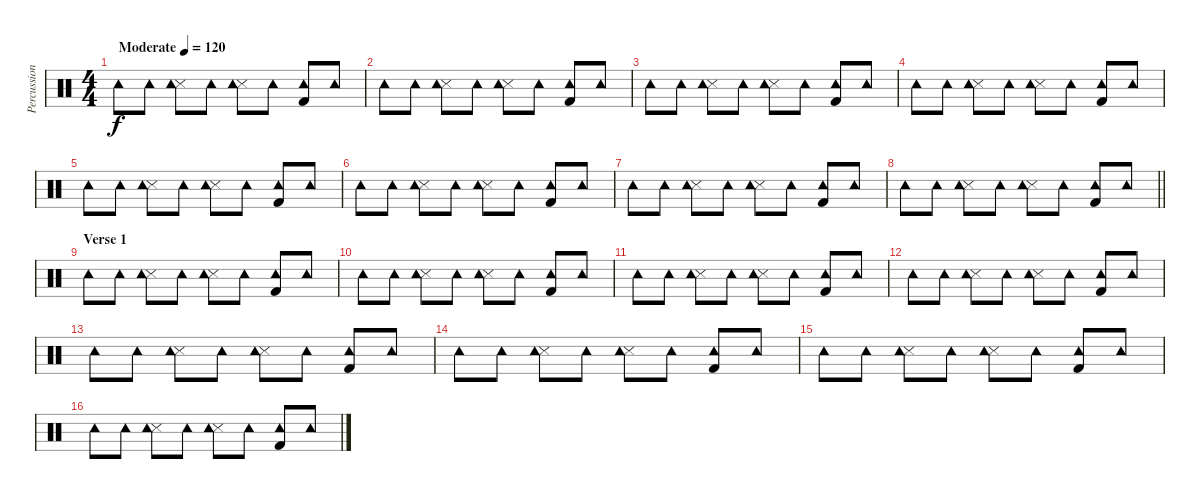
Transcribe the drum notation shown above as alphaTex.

\track ("Percussion" "Percussion") {instrument percussion}
\staff {score}
\articulation defaults
\ts (4 4)
\tempo (120 "Moderate")
\clef neutral
\ks c "Tambourine (hit)".8{dy f} "Tambourine (hit)".8
("Snare (side stick) 3" "Tambourine (hit)").8 "Tambourine (hit)".8 ("Snare (side stick) 3" "Tambourine (hit)").8 "Tambourine (hit)".8 ("Kick (hit) 2" "Tambourine (hit)").8 "Tambourine (hit)".8 |
"Tambourine (hit)".8 "Tambourine (hit)".8 ("Snare (side stick) 3" "Tambourine (hit)").8 "Tambourine (hit)".8 ("Snare (side stick) 3" "Tambourine (hit)").8 "Tambourine (hit)".8 ("Kick (hit) 2" "Tambourine (hit)").8 "Tambourine (hit)".8 |
"Tambourine (hit)".8 "Tambourine (hit)".8 ("Snare (side stick) 3" "Tambourine (hit)").8 "Tambourine (hit)".8 ("Snare (side stick) 3" "Tambourine (hit)").8 "Tambourine (hit)".8 ("Kick (hit) 2" "Tambourine (hit)").8 "Tambourine (hit)".8 |
"Tambourine (hit)".8 "Tambourine (hit)".8 ("Snare (side stick) 3" "Tambourine (hit)").8 "Tambourine (hit)".8 ("Snare (side stick) 3" "Tambourine (hit)").8 "Tambourine (hit)".8 ("Kick (hit) 2" "Tambourine (hit)").8 "Tambourine (hit)".8 |
"Tambourine (hit)".8 "Tambourine (hit)".8 ("Snare (side stick) 3" "Tambourine (hit)").8 "Tambourine (hit)".8 ("Snare (side stick) 3" "Tambourine (hit)").8 "Tambourine (hit)".8 ("Kick (hit) 2" "Tambourine (hit)").8 "Tambourine (hit)".8 |
"Tambourine (hit)".8 "Tambourine (hit)".8 ("Snare (side stick) 3" "Tambourine (hit)").8 "Tambourine (hit)".8 ("Snare (side stick) 3" "Tambourine (hit)").8 "Tambourine (hit)".8 ("Kick (hit) 2" "Tambourine (hit)").8 "Tambourine (hit)".8 |
"Tambourine (hit)".8 "Tambourine (hit)".8 ("Snare (side stick) 3" "Tambourine (hit)").8 "Tambourine (hit)".8 ("Snare (side stick) 3" "Tambourine (hit)").8 "Tambourine (hit)".8 ("Kick (hit) 2" "Tambourine (hit)").8 "Tambourine (hit)".8 |
\barLineRight lightlight "Tambourine (hit)".8 "Tambourine (hit)".8
("Snare (side stick) 3" "Tambourine (hit)").8 "Tambourine (hit)".8 ("Snare (side stick) 3" "Tambourine (hit)").8 "Tambourine (hit)".8 ("Kick (hit) 2" "Tambourine (hit)").8 "Tambourine (hit)".8 |
\section ("" "Verse 1")
"Tambourine (hit)".8 "Tambourine (hit)".8 ("Snare (side stick) 3" "Tambourine (hit)").8 "Tambourine (hit)".8 ("Snare (side stick) 3" "Tambourine (hit)").8 "Tambourine (hit)".8 ("Kick (hit) 2" "Tambourine (hit)").8 "Tambourine (hit)".8 |
"Tambourine (hit)".8 "Tambourine (hit)".8 ("Snare (side stick) 3" "Tambourine (hit)").8 "Tambourine (hit)".8 ("Snare (side stick) 3" "Tambourine (hit)").8 "Tambourine (hit)".8 ("Kick (hit) 2" "Tambourine (hit)").8 "Tambourine (hit)".8 |
"Tambourine (hit)".8 "Tambourine (hit)".8 ("Snare (side stick) 3" "Tambourine (hit)").8 "Tambourine (hit)".8 ("Snare (side stick) 3" "Tambourine (hit)").8 "Tambourine (hit)".8 ("Kick (hit) 2" "Tambourine (hit)").8 "Tambourine (hit)".8 |
"Tambourine (hit)".8 "Tambourine (hit)".8 ("Snare (side stick) 3" "Tambourine (hit)").8 "Tambourine (hit)".8 ("Snare (side stick) 3" "Tambourine (hit)").8 "Tambourine (hit)".8 ("Kick (hit) 2" "Tambourine (hit)").8 "Tambourine (hit)".8 |
"Tambourine (hit)".8 "Tambourine (hit)".8 ("Snare (side stick) 3" "Tambourine (hit)").8 "Tambourine (hit)".8 ("Snare (side stick) 3" "Tambourine (hit)").8 "Tambourine (hit)".8 ("Kick (hit) 2" "Tambourine (hit)").8 "Tambourine (hit)".8 |
"Tambourine (hit)".8 "Tambourine (hit)".8 ("Snare (side stick) 3" "Tambourine (hit)").8 "Tambourine (hit)".8 ("Snare (side stick) 3" "Tambourine (hit)").8 "Tambourine (hit)".8 ("Kick (hit) 2" "Tambourine (hit)").8 "Tambourine (hit)".8 |
"Tambourine (hit)".8 "Tambourine (hit)".8 ("Snare (side stick) 3" "Tambourine (hit)").8 "Tambourine (hit)".8 ("Snare (side stick) 3" "Tambourine (hit)").8 "Tambourine (hit)".8 ("Kick (hit) 2" "Tambourine (hit)").8 "Tambourine (hit)".8 |
"Tambourine (hit)".8 "Tambourine (hit)".8 ("Snare (side stick) 3" "Tambourine (hit)").8 "Tambourine (hit)".8 ("Snare (side stick) 3" "Tambourine (hit)").8 "Tambourine (hit)".8 ("Kick (hit) 2" "Tambourine (hit)").8 "Tambourine (hit)".8
